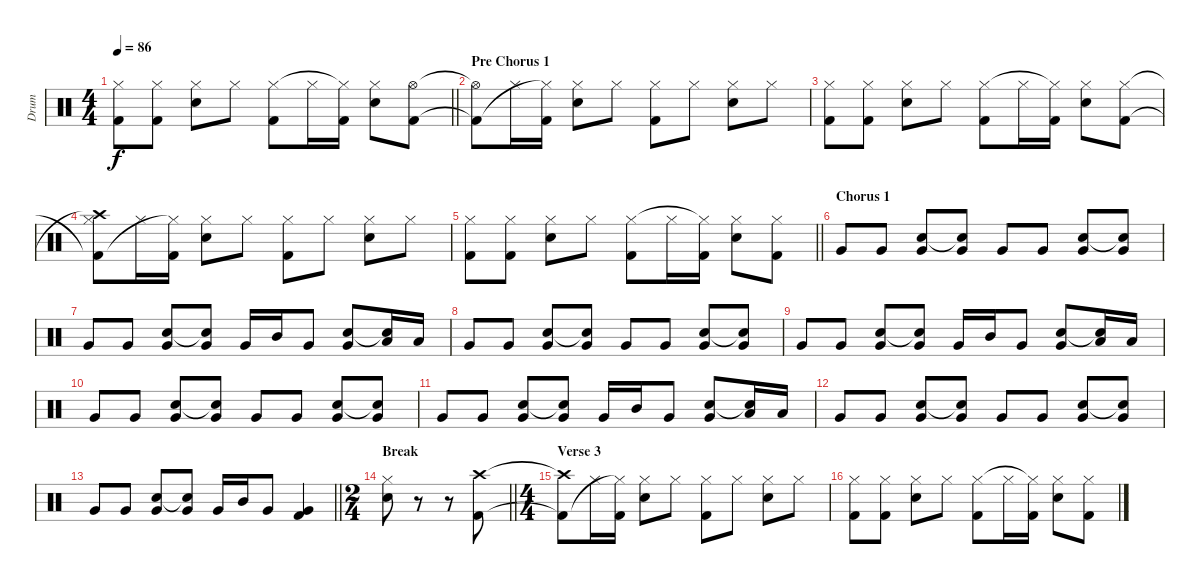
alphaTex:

\track ("Drum" "Drum") {instrument percussion}
\staff {score}
\articulation defaults
\ts (4 4)
\tempo 86
\clef neutral
\barLineRight lightlight
\ks c
("Kick (hit) 2" "Hi-Hat (closed)").8{dy f} ("Kick (hit) 2" "Hi-Hat (closed)").8 ("Hi-Hat (closed)" "Snare (hit) 2").8 "Hi-Hat (closed)".8 ("Kick (hit) 2" "Hi-Hat (closed)").8 "Hi-Hat (closed)".16 ("Kick (hit) 2" "Hi-Hat (closed)"{t}).16 ("Hi-Hat (closed)" "Snare (hit) 2").8 ("Hi-Hat (open)" "Kick (hit) 2").8 |
\section ("" "Pre Chorus 1")
("Hi-Hat (open)"{t} "Kick (hit) 2"{t}).8 "Hi-Hat (closed)".16 ("Kick (hit) 2" "Hi-Hat (closed)"{t}).16 ("Hi-Hat (closed)" "Snare (hit) 2").8 "Hi-Hat (closed)".8 ("Kick (hit) 2" "Hi-Hat (closed)").8 "Hi-Hat (closed)".8 ("Hi-Hat (closed)" "Snare (hit) 2").8 "Hi-Hat (closed)".8 |
("Kick (hit) 2" "Hi-Hat (closed)").8 ("Kick (hit) 2" "Hi-Hat (closed)").8 ("Hi-Hat (closed)" "Snare (hit) 2").8 "Hi-Hat (closed)".8 ("Kick (hit) 2" "Hi-Hat (closed)").8 "Hi-Hat (closed)".16 ("Kick (hit) 2" "Hi-Hat (closed)"{t}).16 ("Hi-Hat (closed)" "Snare (hit) 2").8 ("Kick (hit) 2" "Hi-Hat (closed)").8 |
("Crash high (hit)"{t} "Kick (hit) 2"{t} "Hi-Hat (closed)").8 "Hi-Hat (closed)".16 ("Kick (hit) 2" "Hi-Hat (closed)"{t}).16 ("Hi-Hat (closed)" "Snare (hit) 2").8 "Hi-Hat (closed)".8 ("Kick (hit) 2" "Hi-Hat (closed)").8 "Hi-Hat (closed)".8 ("Hi-Hat (closed)" "Snare (hit) 2").8 "Hi-Hat (closed)".8 |
\barLineRight lightlight
("Kick (hit) 2" "Hi-Hat (closed)").8 ("Kick (hit) 2" "Hi-Hat (closed)").8 ("Hi-Hat (closed)" "Snare (hit) 2").8 "Hi-Hat (closed)".8 ("Kick (hit) 2" "Hi-Hat (closed)").8 "Hi-Hat (closed)".16 ("Kick (hit) 2" "Hi-Hat (closed)"{t}).16 ("Hi-Hat (closed)" "Snare (hit) 2").8 ("Kick (hit) 2" "Hi-Hat (closed)").8 |
\section ("" "Chorus 1")
"Very Low Tom (hit)".8 "Very Low Tom (hit)".8 ("Snare (hit) 2" "Very Low Tom (hit)").8 ("Snare (hit) 2"{t} "Very Low Tom (hit)").8 "Very Low Tom (hit)".8 "Very Low Tom (hit)".8 ("Snare (hit) 2" "Very Low Tom (hit)").8 ("Snare (hit) 2"{t} "Very Low Tom (hit)").8 |
"Very Low Tom (hit)".8 "Very Low Tom (hit)".8 ("Snare (hit) 2" "Very Low Tom (hit)").8 ("Snare (hit) 2"{t} "Very Low Tom (hit)").8 "Very Low Tom (hit)".16 "Mid Tom (hit)".16 "Very Low Tom (hit)".8 ("Snare (hit) 2" "Very Low Tom (hit)").8 ("Snare (hit) 2"{t} "Low Tom (hit)").16 "Low Tom (hit)".16 |
"Very Low Tom (hit)".8 "Very Low Tom (hit)".8 ("Snare (hit) 2" "Very Low Tom (hit)").8 ("Snare (hit) 2"{t} "Very Low Tom (hit)").8 "Very Low Tom (hit)".8 "Very Low Tom (hit)".8 ("Snare (hit) 2" "Very Low Tom (hit)").8 ("Snare (hit) 2"{t} "Very Low Tom (hit)").8 |
"Very Low Tom (hit)".8 "Very Low Tom (hit)".8 ("Snare (hit) 2" "Very Low Tom (hit)").8 ("Snare (hit) 2"{t} "Very Low Tom (hit)").8 "Very Low Tom (hit)".16 "Mid Tom (hit)".16 "Very Low Tom (hit)".8 ("Snare (hit) 2" "Very Low Tom (hit)").8 ("Snare (hit) 2"{t} "Low Tom (hit)").16 "Low Tom (hit)".16 |
"Very Low Tom (hit)".8 "Very Low Tom (hit)".8 ("Snare (hit) 2" "Very Low Tom (hit)").8 ("Snare (hit) 2"{t} "Very Low Tom (hit)").8 "Very Low Tom (hit)".8 "Very Low Tom (hit)".8 ("Snare (hit) 2" "Very Low Tom (hit)").8 ("Snare (hit) 2"{t} "Very Low Tom (hit)").8 |
"Very Low Tom (hit)".8 "Very Low Tom (hit)".8 ("Snare (hit) 2" "Very Low Tom (hit)").8 ("Snare (hit) 2"{t} "Very Low Tom (hit)").8 "Very Low Tom (hit)".16 "Mid Tom (hit)".16 "Very Low Tom (hit)".8 ("Snare (hit) 2" "Very Low Tom (hit)").8 ("Snare (hit) 2"{t} "Low Tom (hit)").16 "Low Tom (hit)".16 |
"Very Low Tom (hit)".8 "Very Low Tom (hit)".8 ("Snare (hit) 2" "Very Low Tom (hit)").8 ("Snare (hit) 2"{t} "Very Low Tom (hit)").8 "Very Low Tom (hit)".8 "Very Low Tom (hit)".8 ("Snare (hit) 2" "Very Low Tom (hit)").8 ("Snare (hit) 2"{t} "Very Low Tom (hit)").8 |
\barLineRight lightlight "Very Low Tom (hit)".8 "Very Low Tom (hit)".8
("Snare (hit) 2" "Very Low Tom (hit)").8 ("Snare (hit) 2"{t} "Very Low Tom (hit)").8 "Very Low Tom (hit)".16 "Mid Tom (hit)".16 "Very Low Tom (hit)".8 ("Kick (hit) 2" "Very Low Tom (hit)").4 |
\ts (2 4)
\section ("" "Break")
\barLineRight lightlight
("Hi-Hat (closed)" "Snare (hit) 2").8 r.8 r.8 ("Crash high (hit)" "Kick (hit) 2").8 |
\ts (4 4)
\section ("" "Verse 3")
("Crash high (hit)"{t} "Kick (hit) 2"{t}).8 "Hi-Hat (closed)".16 ("Kick (hit) 2" "Hi-Hat (closed)"{t}).16 ("Hi-Hat (closed)" "Snare (hit) 2").8 "Hi-Hat (closed)".8 ("Kick (hit) 2" "Hi-Hat (closed)").8 "Hi-Hat (closed)".8 ("Hi-Hat (closed)" "Snare (hit) 2").8 "Hi-Hat (closed)".8 |
("Kick (hit) 2" "Hi-Hat (closed)").8 ("Kick (hit) 2" "Hi-Hat (closed)").8 ("Hi-Hat (closed)" "Snare (hit) 2").8 "Hi-Hat (closed)".8 ("Kick (hit) 2" "Hi-Hat (closed)").8 "Hi-Hat (closed)".16 ("Kick (hit) 2" "Hi-Hat (closed)"{t}).16 ("Hi-Hat (closed)" "Snare (hit) 2").8 ("Kick (hit) 2" "Hi-Hat (closed)").8
